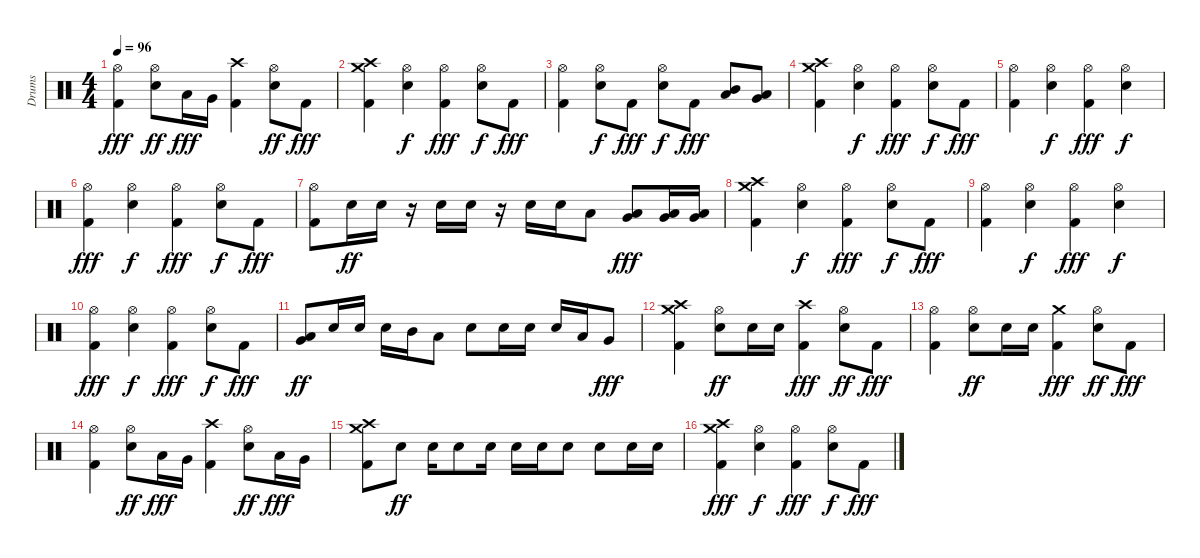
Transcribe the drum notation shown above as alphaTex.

\track ("Drums" "Drums") {instrument percussion}
\staff {score}
\articulation defaults
\ts (4 4)
\tempo 96
\clef neutral
\ks c
("Hi-Hat (open)" "Kick (hit) 2").4{dy fff} ("Hi-Hat (open)" "Electric Snare (hit)").8{dy ff} "Low Tom (hit)".16{dy fff} "Very Low Tom (hit)".16 ("Crash high (hit)" "Kick (hit) 2").4 ("Hi-Hat (open)" "Electric Snare (hit)").8{dy ff} "Kick (hit) 2".8{dy fff} |
("Crash high (hit)" "Crash medium (hit)" "Kick (hit) 2").4 ("Hi-Hat (open)" "Electric Snare (hit)").4{dy f} ("Hi-Hat (open)" "Kick (hit) 2").4{dy fff} ("Hi-Hat (open)" "Electric Snare (hit)").8{dy f} "Kick (hit) 2".8{dy fff} |
("Hi-Hat (open)" "Kick (hit) 2").4 ("Hi-Hat (open)" "Electric Snare (hit)").8{dy f} "Kick (hit) 2".8{dy fff} ("Hi-Hat (open)" "Electric Snare (hit)").8{dy f} "Kick (hit) 2".8{dy fff} ("Mid Tom (hit)" "Low Tom (hit)").8 ("Low Tom (hit)" "Very Low Tom (hit)").8 |
("Crash high (hit)" "Crash medium (hit)" "Kick (hit) 2").4 ("Hi-Hat (open)" "Electric Snare (hit)").4{dy f} ("Hi-Hat (open)" "Kick (hit) 2").4{dy fff} ("Hi-Hat (open)" "Electric Snare (hit)").8{dy f} "Kick (hit) 2".8{dy fff} |
("Hi-Hat (open)" "Kick (hit) 2").4 ("Hi-Hat (open)" "Electric Snare (hit)").4{dy f} ("Hi-Hat (open)" "Kick (hit) 2").4{dy fff} ("Hi-Hat (open)" "Electric Snare (hit)").4{dy f} |
("Hi-Hat (open)" "Kick (hit) 2").4{dy fff} ("Hi-Hat (open)" "Electric Snare (hit)").4{dy f} ("Hi-Hat (open)" "Kick (hit) 2").4{dy fff} ("Hi-Hat (open)" "Electric Snare (hit)").8{dy f} "Kick (hit) 2".8{dy fff} |
("Hi-Hat (open)" "Kick (hit) 2").8 "Electric Snare (hit)".16{dy ff} "Electric Snare (hit)".16 r.16 "Electric Snare (hit)".16 "Electric Snare (hit)".16 r.16 "Electric Snare (hit)".16 "Electric Snare (hit)".16 "Low Tom (hit)".8 ("Low Tom (hit)" "Very Low Tom (hit)").8{dy fff} ("Very Low Tom (hit)" "Low Floor Tom (hit)").16 ("Very Low Tom (hit)" "Low Floor Tom (hit)").16 |
("Crash high (hit)" "Crash medium (hit)" "Kick (hit) 2").4 ("Hi-Hat (open)" "Electric Snare (hit)").4{dy f} ("Hi-Hat (open)" "Kick (hit) 2").4{dy fff} ("Hi-Hat (open)" "Electric Snare (hit)").8{dy f} "Kick (hit) 2".8{dy fff} |
("Hi-Hat (open)" "Kick (hit) 2").4 ("Hi-Hat (open)" "Electric Snare (hit)").4{dy f} ("Hi-Hat (open)" "Kick (hit) 2").4{dy fff} ("Hi-Hat (open)" "Electric Snare (hit)").4{dy f} |
("Hi-Hat (open)" "Kick (hit) 2").4{dy fff} ("Hi-Hat (open)" "Electric Snare (hit)").4{dy f} ("Hi-Hat (open)" "Kick (hit) 2").4{dy fff} ("Hi-Hat (open)" "Electric Snare (hit)").8{dy f} "Kick (hit) 2".8{dy fff} |
("Very Low Tom (hit)" "Low Floor Tom (hit)").8{dy ff} "Electric Snare (hit)".16 "Electric Snare (hit)".16 "Electric Snare (hit)".16 "Mid Tom (hit)".16 "Low Tom (hit)".8 "Electric Snare (hit)".8 "Electric Snare (hit)".16 "Electric Snare (hit)".16 "Electric Snare (hit)".16 "Low Tom (hit)".16 "Very Low Tom (hit)".8{dy fff} |
("Crash high (hit)" "Crash medium (hit)" "Kick (hit) 2").4 ("Hi-Hat (open)" "Electric Snare (hit)").8{dy ff} "Electric Snare (hit)".16 "Electric Snare (hit)".16 ("Crash high (hit)" "Kick (hit) 2").4{dy fff} ("Hi-Hat (open)" "Electric Snare (hit)").8{dy ff} "Kick (hit) 2".8{dy fff} |
("Hi-Hat (open)" "Kick (hit) 2").4 ("Hi-Hat (open)" "Electric Snare (hit)").8{dy ff} "Electric Snare (hit)".16 "Electric Snare (hit)".16 ("Crash medium (hit)" "Kick (hit) 2").4{dy fff} ("Hi-Hat (open)" "Electric Snare (hit)").8{dy ff} "Kick (hit) 2".8{dy fff} |
("Hi-Hat (open)" "Kick (hit) 2").4 ("Hi-Hat (open)" "Electric Snare (hit)").8{dy ff} "Low Tom (hit)".16{dy fff} "Very Low Tom (hit)".16 ("Crash high (hit)" "Kick (hit) 2").4 ("Hi-Hat (open)" "Electric Snare (hit)").8{dy ff} "Low Tom (hit)".16{dy fff} "Very Low Tom (hit)".16 |
("Crash high (hit)" "Crash medium (hit)" "Kick (hit) 2").8 "Electric Snare (hit)".8{dy ff} "Electric Snare (hit)".16 "Electric Snare (hit)".8 "Electric Snare (hit)".16 "Electric Snare (hit)".16 "Electric Snare (hit)".16 "Electric Snare (hit)".8 "Electric Snare (hit)".8 "Electric Snare (hit)".16 "Electric Snare (hit)".16 |
("Crash high (hit)" "Crash medium (hit)" "Kick (hit) 2").4{dy fff} ("Hi-Hat (open)" "Electric Snare (hit)").4{dy f} ("Hi-Hat (open)" "Kick (hit) 2").4{dy fff} ("Hi-Hat (open)" "Electric Snare (hit)").8{dy f} "Kick (hit) 2".8{dy fff}
